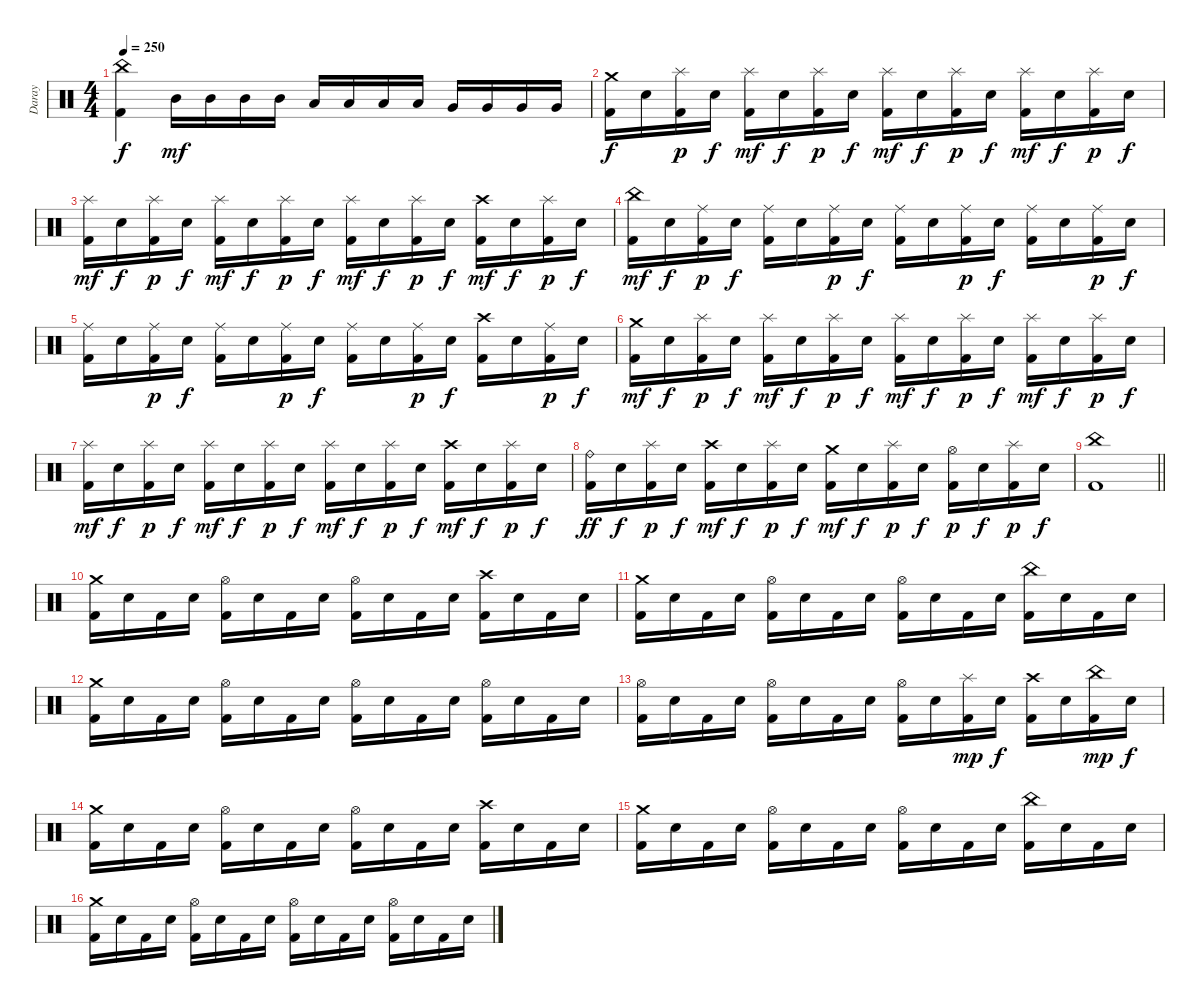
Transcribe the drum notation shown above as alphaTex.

\track ("Daray" "Daray") {instrument percussion}
\staff {score}
\articulation defaults
\ts (4 4)
\tempo 250
\clef neutral
\ks c
("China (hit)" "Kick (hit) 2").4{dy f} "Mid Tom (hit)".16{dy mf} "Mid Tom (hit)".16 "Mid Tom (hit)".16 "Mid Tom (hit)".16 "Low Tom (hit)".16 "Low Tom (hit)".16 "Low Tom (hit)".16 "Low Tom (hit)".16 "Very Low Tom (hit)".16 "Very Low Tom (hit)".16 "Very Low Tom (hit)".16 "Very Low Tom (hit)".16 |
("Crash medium (hit)" "Kick (hit) 2").16{dy f} "Electric Snare (hit)".16 ("Splash (hit)" "Kick (hit) 2").16{dy p} "Electric Snare (hit)".16{dy f} ("Splash (hit)" "Kick (hit) 2").16{dy mf} "Electric Snare (hit)".16{dy f} ("Splash (hit)" "Kick (hit) 2").16{dy p} "Electric Snare (hit)".16{dy f} ("Splash (hit)" "Kick (hit) 2").16{dy mf} "Electric Snare (hit)".16{dy f} ("Splash (hit)" "Kick (hit) 2").16{dy p} "Electric Snare (hit)".16{dy f} ("Splash (hit)" "Kick (hit) 2").16{dy mf} "Electric Snare (hit)".16{dy f} ("Splash (hit)" "Kick (hit) 2").16{dy p} "Electric Snare (hit)".16{dy f} |
("Splash (hit)" "Kick (hit) 2").16{dy mf} "Electric Snare (hit)".16{dy f} ("Splash (hit)" "Kick (hit) 2").16{dy p} "Electric Snare (hit)".16{dy f} ("Splash (hit)" "Kick (hit) 2").16{dy mf} "Electric Snare (hit)".16{dy f} ("Splash (hit)" "Kick (hit) 2").16{dy p} "Electric Snare (hit)".16{dy f} ("Splash (hit)" "Kick (hit) 2").16{dy mf} "Electric Snare (hit)".16{dy f} ("Splash (hit)" "Kick (hit) 2").16{dy p} "Electric Snare (hit)".16{dy f} ("Crash high (hit)" "Kick (hit) 2").16{dy mf} "Electric Snare (hit)".16{dy f} ("Splash (hit)" "Kick (hit) 2").16{dy p} "Electric Snare (hit)".16{dy f} |
("China (hit)" "Kick (hit) 2").16{dy mf} "Electric Snare (hit)".16{dy f} ("Ride (middle)" "Kick (hit) 2").16{dy p} "Electric Snare (hit)".16{dy f} ("Ride (middle)" "Kick (hit) 2").16 "Electric Snare (hit)".16 ("Ride (middle)" "Kick (hit) 2").16{dy p} "Electric Snare (hit)".16{dy f} ("Ride (middle)" "Kick (hit) 2").16 "Electric Snare (hit)".16 ("Ride (middle)" "Kick (hit) 2").16{dy p} "Electric Snare (hit)".16{dy f} ("Ride (middle)" "Kick (hit) 2").16 "Electric Snare (hit)".16 ("Ride (middle)" "Kick (hit) 2").16{dy p} "Electric Snare (hit)".16{dy f} |
("Ride (middle)" "Kick (hit) 2").16 "Electric Snare (hit)".16 ("Ride (middle)" "Kick (hit) 2").16{dy p} "Electric Snare (hit)".16{dy f} ("Ride (middle)" "Kick (hit) 2").16 "Electric Snare (hit)".16 ("Ride (middle)" "Kick (hit) 2").16{dy p} "Electric Snare (hit)".16{dy f} ("Ride (middle)" "Kick (hit) 2").16 "Electric Snare (hit)".16 ("Ride (middle)" "Kick (hit) 2").16{dy p} "Electric Snare (hit)".16{dy f} ("Crash high (hit)" "Kick (hit) 2").16 "Electric Snare (hit)".16 ("Ride (middle)" "Kick (hit) 2").16{dy p} "Electric Snare (hit)".16{dy f} |
("Crash medium (hit)" "Kick (hit) 2").16{dy mf} "Electric Snare (hit)".16{dy f} ("Splash (hit)" "Kick (hit) 2").16{dy p} "Electric Snare (hit)".16{dy f} ("Splash (hit)" "Kick (hit) 2").16{dy mf} "Electric Snare (hit)".16{dy f} ("Splash (hit)" "Kick (hit) 2").16{dy p} "Electric Snare (hit)".16{dy f} ("Splash (hit)" "Kick (hit) 2").16{dy mf} "Electric Snare (hit)".16{dy f} ("Splash (hit)" "Kick (hit) 2").16{dy p} "Electric Snare (hit)".16{dy f} ("Splash (hit)" "Kick (hit) 2").16{dy mf} "Electric Snare (hit)".16{dy f} ("Splash (hit)" "Kick (hit) 2").16{dy p} "Electric Snare (hit)".16{dy f} |
("Splash (hit)" "Kick (hit) 2").16{dy mf} "Electric Snare (hit)".16{dy f} ("Splash (hit)" "Kick (hit) 2").16{dy p} "Electric Snare (hit)".16{dy f} ("Splash (hit)" "Kick (hit) 2").16{dy mf} "Electric Snare (hit)".16{dy f} ("Splash (hit)" "Kick (hit) 2").16{dy p} "Electric Snare (hit)".16{dy f} ("Splash (hit)" "Kick (hit) 2").16{dy mf} "Electric Snare (hit)".16{dy f} ("Splash (hit)" "Kick (hit) 2").16{dy p} "Electric Snare (hit)".16{dy f} ("Crash high (hit)" "Kick (hit) 2").16{dy mf} "Electric Snare (hit)".16{dy f} ("Splash (hit)" "Kick (hit) 2").16{dy p} "Electric Snare (hit)".16{dy f} |
("Ride (bell)" "Kick (hit) 2").16{dy ff} "Electric Snare (hit)".16{dy f} ("Splash (hit)" "Kick (hit) 2").16{dy p} "Electric Snare (hit)".16{dy f} ("Crash high (hit)" "Kick (hit) 2").16{dy mf} "Electric Snare (hit)".16{dy f} ("Splash (hit)" "Kick (hit) 2").16{dy p} "Electric Snare (hit)".16{dy f} ("Crash medium (hit)" "Kick (hit) 2").16{dy mf} "Electric Snare (hit)".16{dy f} ("Splash (hit)" "Kick (hit) 2").16{dy p} "Electric Snare (hit)".16{dy f} ("Hi-Hat (open)" "Kick (hit) 2").16{dy p} "Electric Snare (hit)".16{dy f} ("Splash (hit)" "Kick (hit) 2").16{dy p} "Electric Snare (hit)".16{dy f} |
\barLineRight lightlight
("China (hit)" "Kick (hit) 2").1 |
("Crash medium (hit)" "Kick (hit) 2").16 "Electric Snare (hit)".16 "Kick (hit) 2".16 "Electric Snare (hit)".16 ("Hi-Hat (open)" "Kick (hit) 2").16 "Electric Snare (hit)".16 "Kick (hit) 2".16 "Electric Snare (hit)".16 ("Hi-Hat (open)" "Kick (hit) 2").16 "Electric Snare (hit)".16 "Kick (hit) 2".16 "Electric Snare (hit)".16 ("Crash high (hit)" "Kick (hit) 2").16 "Electric Snare (hit)".16 "Kick (hit) 2".16 "Electric Snare (hit)".16 |
("Crash medium (hit)" "Kick (hit) 2").16 "Electric Snare (hit)".16 "Kick (hit) 2".16 "Electric Snare (hit)".16 ("Hi-Hat (open)" "Kick (hit) 2").16 "Electric Snare (hit)".16 "Kick (hit) 2".16 "Electric Snare (hit)".16 ("Hi-Hat (open)" "Kick (hit) 2").16 "Electric Snare (hit)".16 "Kick (hit) 2".16 "Electric Snare (hit)".16 ("China (hit)" "Kick (hit) 2").16 "Electric Snare (hit)".16 "Kick (hit) 2".16 "Electric Snare (hit)".16 |
("Crash medium (hit)" "Kick (hit) 2").16 "Electric Snare (hit)".16 "Kick (hit) 2".16 "Electric Snare (hit)".16 ("Hi-Hat (open)" "Kick (hit) 2").16 "Electric Snare (hit)".16 "Kick (hit) 2".16 "Electric Snare (hit)".16 ("Hi-Hat (open)" "Kick (hit) 2").16 "Electric Snare (hit)".16 "Kick (hit) 2".16 "Electric Snare (hit)".16 ("Hi-Hat (open)" "Kick (hit) 2").16 "Electric Snare (hit)".16 "Kick (hit) 2".16 "Electric Snare (hit)".16 |
("Hi-Hat (open)" "Kick (hit) 2").16 "Electric Snare (hit)".16 "Kick (hit) 2".16 "Electric Snare (hit)".16 ("Hi-Hat (open)" "Kick (hit) 2").16 "Electric Snare (hit)".16 "Kick (hit) 2".16 "Electric Snare (hit)".16 ("Hi-Hat (open)" "Kick (hit) 2").16 "Electric Snare (hit)".16 ("Splash (hit)" "Kick (hit) 2").16{dy mp} "Electric Snare (hit)".16{dy f} ("Crash high (hit)" "Kick (hit) 2").16 "Electric Snare (hit)".16 ("China (hit)" "Kick (hit) 2").16{dy mp} "Electric Snare (hit)".16{dy f} |
("Crash medium (hit)" "Kick (hit) 2").16 "Electric Snare (hit)".16 "Kick (hit) 2".16 "Electric Snare (hit)".16 ("Hi-Hat (open)" "Kick (hit) 2").16 "Electric Snare (hit)".16 "Kick (hit) 2".16 "Electric Snare (hit)".16 ("Hi-Hat (open)" "Kick (hit) 2").16 "Electric Snare (hit)".16 "Kick (hit) 2".16 "Electric Snare (hit)".16 ("Crash high (hit)" "Kick (hit) 2").16 "Electric Snare (hit)".16 "Kick (hit) 2".16 "Electric Snare (hit)".16 |
("Crash medium (hit)" "Kick (hit) 2").16 "Electric Snare (hit)".16 "Kick (hit) 2".16 "Electric Snare (hit)".16 ("Hi-Hat (open)" "Kick (hit) 2").16 "Electric Snare (hit)".16 "Kick (hit) 2".16 "Electric Snare (hit)".16 ("Hi-Hat (open)" "Kick (hit) 2").16 "Electric Snare (hit)".16 "Kick (hit) 2".16 "Electric Snare (hit)".16 ("China (hit)" "Kick (hit) 2").16 "Electric Snare (hit)".16 "Kick (hit) 2".16 "Electric Snare (hit)".16 |
("Crash medium (hit)" "Kick (hit) 2").16 "Electric Snare (hit)".16 "Kick (hit) 2".16 "Electric Snare (hit)".16 ("Hi-Hat (open)" "Kick (hit) 2").16 "Electric Snare (hit)".16 "Kick (hit) 2".16 "Electric Snare (hit)".16 ("Hi-Hat (open)" "Kick (hit) 2").16 "Electric Snare (hit)".16 "Kick (hit) 2".16 "Electric Snare (hit)".16 ("Hi-Hat (open)" "Kick (hit) 2").16 "Electric Snare (hit)".16 "Kick (hit) 2".16 "Electric Snare (hit)".16
